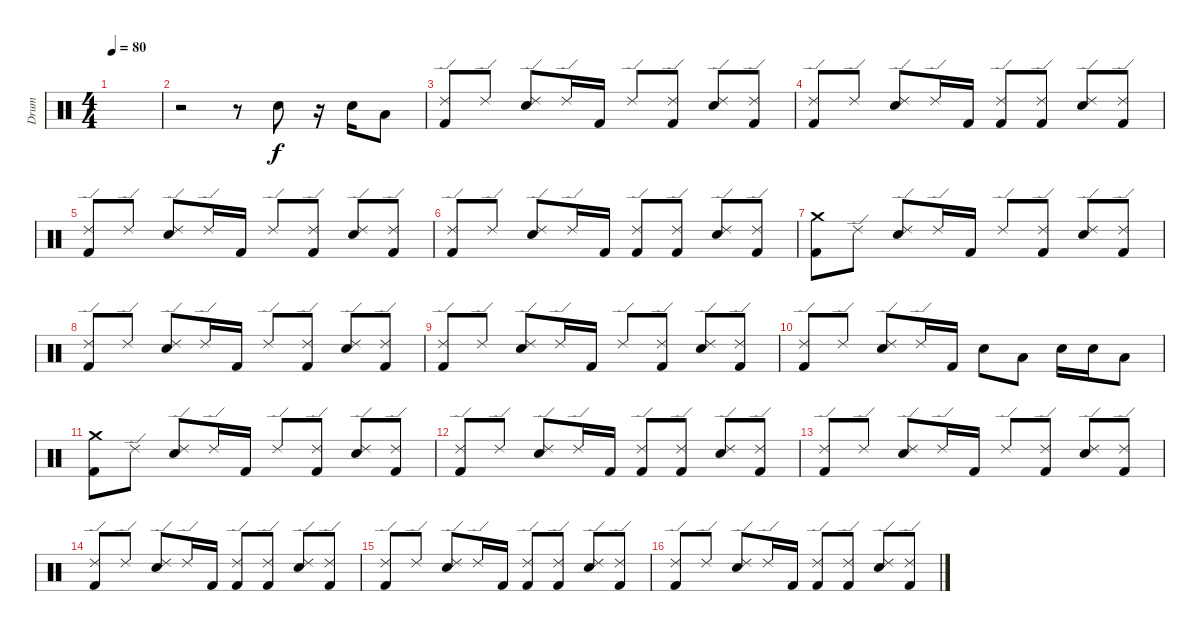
\track ("Drum" "Drum") {instrument percussion}
\staff {score}
\articulation defaults
\ts (4 4)
\tempo 80
\clef neutral
\ks c
|
r.2 r.8 "Electric Snare (hit)".8 r.16 "Electric Snare (hit)".16 "Low Tom (hit)".8 |
("Ride (edge) 2" "Kick (hit) 2").8 "Ride (edge) 2".8 ("Ride (edge) 2" "Electric Snare (hit)").8 "Ride (edge) 2".16 "Kick (hit) 2".16 "Ride (edge) 2".8 ("Ride (edge) 2" "Kick (hit) 2").8 ("Ride (edge) 2" "Electric Snare (hit)").8 ("Ride (edge) 2" "Kick (hit) 2").8 |
("Ride (edge) 2" "Kick (hit) 2").8 "Ride (edge) 2".8 ("Ride (edge) 2" "Electric Snare (hit)").8 "Ride (edge) 2".16 "Kick (hit) 2".16 ("Ride (edge) 2" "Kick (hit) 2").8 ("Ride (edge) 2" "Kick (hit) 2").8 ("Ride (edge) 2" "Electric Snare (hit)").8 ("Ride (edge) 2" "Kick (hit) 2").8 |
("Ride (edge) 2" "Kick (hit) 2").8 "Ride (edge) 2".8 ("Ride (edge) 2" "Electric Snare (hit)").8 "Ride (edge) 2".16 "Kick (hit) 2".16 "Ride (edge) 2".8 ("Ride (edge) 2" "Kick (hit) 2").8 ("Ride (edge) 2" "Electric Snare (hit)").8 ("Ride (edge) 2" "Kick (hit) 2").8 |
("Ride (edge) 2" "Kick (hit) 2").8 "Ride (edge) 2".8 ("Ride (edge) 2" "Electric Snare (hit)").8 "Ride (edge) 2".16 "Kick (hit) 2".16 ("Ride (edge) 2" "Kick (hit) 2").8 ("Ride (edge) 2" "Kick (hit) 2").8 ("Ride (edge) 2" "Electric Snare (hit)").8 ("Ride (edge) 2" "Kick (hit) 2").8 |
("Crash medium (hit)" "Kick (hit) 2").8 "Ride (edge) 2".8 ("Ride (edge) 2" "Electric Snare (hit)").8 "Ride (edge) 2".16 "Kick (hit) 2".16 "Ride (edge) 2".8 ("Ride (edge) 2" "Kick (hit) 2").8 ("Ride (edge) 2" "Electric Snare (hit)").8 ("Ride (edge) 2" "Kick (hit) 2").8 |
("Ride (edge) 2" "Kick (hit) 2").8 "Ride (edge) 2".8 ("Ride (edge) 2" "Electric Snare (hit)").8 "Ride (edge) 2".16 "Kick (hit) 2".16 "Ride (edge) 2".8 ("Ride (edge) 2" "Kick (hit) 2").8 ("Ride (edge) 2" "Electric Snare (hit)").8 ("Ride (edge) 2" "Kick (hit) 2").8 |
("Ride (edge) 2" "Kick (hit) 2").8 "Ride (edge) 2".8 ("Ride (edge) 2" "Electric Snare (hit)").8 "Ride (edge) 2".16 "Kick (hit) 2".16 "Ride (edge) 2".8 ("Ride (edge) 2" "Kick (hit) 2").8 ("Ride (edge) 2" "Electric Snare (hit)").8 ("Ride (edge) 2" "Kick (hit) 2").8 |
("Ride (edge) 2" "Kick (hit) 2").8 "Ride (edge) 2".8 ("Ride (edge) 2" "Electric Snare (hit)").8 "Ride (edge) 2".16 "Kick (hit) 2".16 "Electric Snare (hit)".8 "Low Tom (hit)".8 "Electric Snare (hit)".16 "Electric Snare (hit)".16 "Low Tom (hit)".8 |
("Crash medium (hit)" "Kick (hit) 2").8 "Ride (edge) 2".8 ("Ride (edge) 2" "Electric Snare (hit)").8 "Ride (edge) 2".16 "Kick (hit) 2".16 "Ride (edge) 2".8 ("Ride (edge) 2" "Kick (hit) 2").8 ("Ride (edge) 2" "Electric Snare (hit)").8 ("Ride (edge) 2" "Kick (hit) 2").8 |
("Ride (edge) 2" "Kick (hit) 2").8 "Ride (edge) 2".8 ("Ride (edge) 2" "Electric Snare (hit)").8 "Ride (edge) 2".16 "Kick (hit) 2".16 ("Ride (edge) 2" "Kick (hit) 2").8 ("Ride (edge) 2" "Kick (hit) 2").8 ("Ride (edge) 2" "Electric Snare (hit)").8 ("Ride (edge) 2" "Kick (hit) 2").8 |
("Ride (edge) 2" "Kick (hit) 2").8 "Ride (edge) 2".8 ("Ride (edge) 2" "Electric Snare (hit)").8 "Ride (edge) 2".16 "Kick (hit) 2".16 "Ride (edge) 2".8 ("Ride (edge) 2" "Kick (hit) 2").8 ("Ride (edge) 2" "Electric Snare (hit)").8 ("Ride (edge) 2" "Kick (hit) 2").8 |
("Ride (edge) 2" "Kick (hit) 2").8 "Ride (edge) 2".8 ("Ride (edge) 2" "Electric Snare (hit)").8 "Ride (edge) 2".16 "Kick (hit) 2".16 ("Ride (edge) 2" "Kick (hit) 2").8 ("Ride (edge) 2" "Kick (hit) 2").8 ("Ride (edge) 2" "Electric Snare (hit)").8 ("Ride (edge) 2" "Kick (hit) 2").8 |
("Ride (edge) 2" "Kick (hit) 2").8 "Ride (edge) 2".8 ("Ride (edge) 2" "Electric Snare (hit)").8 "Ride (edge) 2".16 "Kick (hit) 2".16 ("Ride (edge) 2" "Kick (hit) 2").8 ("Ride (edge) 2" "Kick (hit) 2").8 ("Ride (edge) 2" "Electric Snare (hit)").8 ("Ride (edge) 2" "Kick (hit) 2").8 |
("Ride (edge) 2" "Kick (hit) 2").8 "Ride (edge) 2".8 ("Ride (edge) 2" "Electric Snare (hit)").8 "Ride (edge) 2".16 "Kick (hit) 2".16 ("Ride (edge) 2" "Kick (hit) 2").8 ("Ride (edge) 2" "Kick (hit) 2").8 ("Ride (edge) 2" "Electric Snare (hit)").8 ("Ride (edge) 2" "Kick (hit) 2").8
